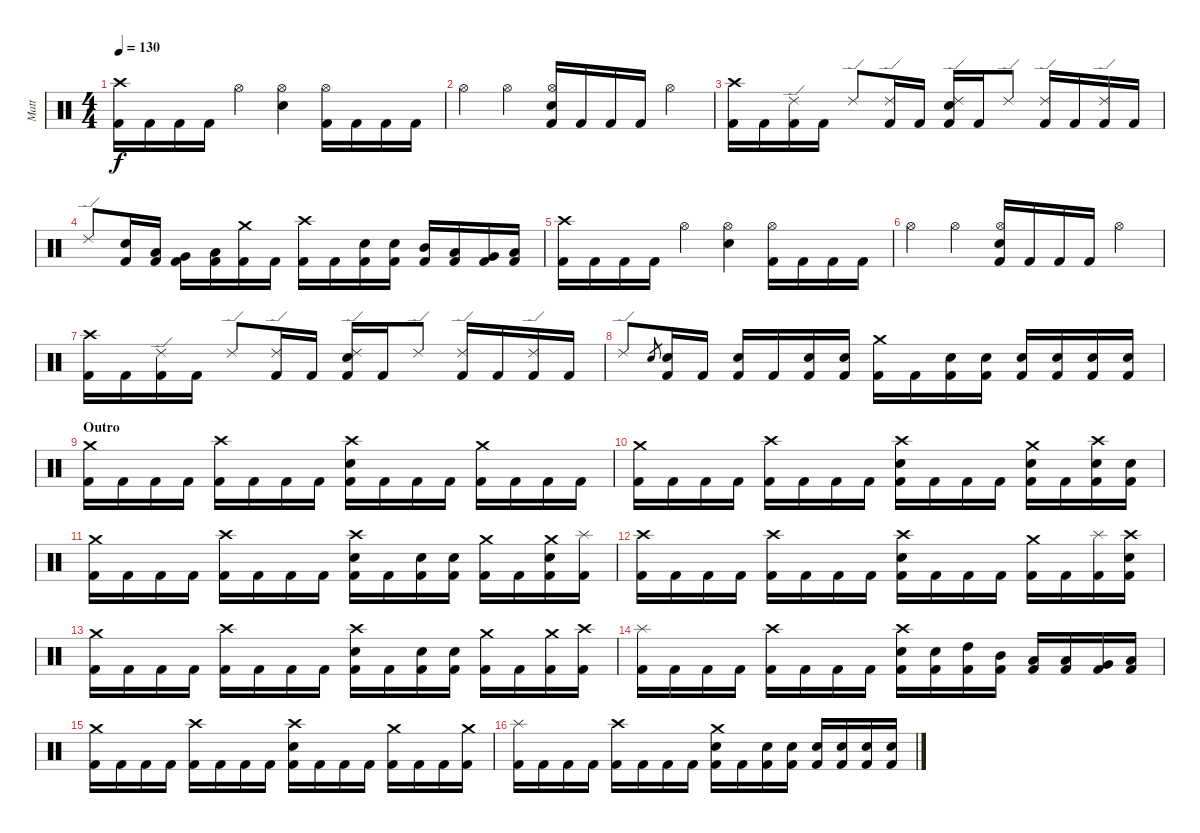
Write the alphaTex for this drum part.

\track ("Matt" "Matt") {instrument percussion}
\staff {score}
\articulation defaults
\ts (4 4)
\tempo 130
\clef neutral
\ks c
("Crash high (hit)" "Kick (hit) 2").16{dy f} "Kick (hit) 2".16 "Kick (hit) 2".16 "Kick (hit) 2".16 "Hi-Hat (open)".4 ("Hi-Hat (open)" "Electric Snare (hit)").4 ("Hi-Hat (open)" "Kick (hit) 2").16 "Kick (hit) 2".16 "Kick (hit) 2".16 "Kick (hit) 2".16 |
"Hi-Hat (open)".4 "Hi-Hat (open)".4 ("Hi-Hat (open)" "Electric Snare (hit)" "Kick (hit) 2").16 "Kick (hit) 2".16 "Kick (hit) 2".16 "Kick (hit) 2".16 "Hi-Hat (open)".4 |
("Crash high (hit)" "Kick (hit) 2").16 "Kick (hit) 2".16 ("Ride (edge) 2" "Kick (hit) 2").16 "Kick (hit) 2".16 "Ride (edge) 2".8 ("Ride (edge) 2" "Kick (hit) 2").16 "Kick (hit) 2".16 ("Ride (edge) 2" "Electric Snare (hit)" "Kick (hit) 2").16 "Kick (hit) 2".16 "Ride (edge) 2".8 ("Ride (edge) 2" "Kick (hit) 2").16 "Kick (hit) 2".16 ("Ride (edge) 2" "Kick (hit) 2").16 "Kick (hit) 2".16 |
"Ride (edge) 2".8 ("Electric Snare (hit)" "Kick (hit) 2").16 ("Low Tom (hit)" "Kick (hit) 2").16 ("Very Low Tom (hit)" "Kick (hit) 2").16 ("Low Floor Tom (hit)" "Kick (hit) 2").16 ("Crash medium (hit)" "Kick (hit) 2").16 "Kick (hit) 2".16 ("Crash high (hit)" "Kick (hit) 2").16 "Kick (hit) 2".16 ("Electric Snare (hit)" "Kick (hit) 2").16 ("Electric Snare (hit)" "Kick (hit) 2").16 ("Mid Tom (hit)" "Kick (hit) 2").16 ("Low Tom (hit)" "Kick (hit) 2").16 ("Very Low Tom (hit)" "Kick (hit) 2").16 ("Low Floor Tom (hit)" "Kick (hit) 2").16 |
("Crash high (hit)" "Kick (hit) 2").16 "Kick (hit) 2".16 "Kick (hit) 2".16 "Kick (hit) 2".16 "Hi-Hat (open)".4 ("Hi-Hat (open)" "Electric Snare (hit)").4 ("Hi-Hat (open)" "Kick (hit) 2").16 "Kick (hit) 2".16 "Kick (hit) 2".16 "Kick (hit) 2".16 |
"Hi-Hat (open)".4 "Hi-Hat (open)".4 ("Hi-Hat (open)" "Electric Snare (hit)" "Kick (hit) 2").16 "Kick (hit) 2".16 "Kick (hit) 2".16 "Kick (hit) 2".16 "Hi-Hat (open)".4 |
("Crash high (hit)" "Kick (hit) 2").16 "Kick (hit) 2".16 ("Ride (edge) 2" "Kick (hit) 2").16 "Kick (hit) 2".16 "Ride (edge) 2".8 ("Ride (edge) 2" "Kick (hit) 2").16 "Kick (hit) 2".16 ("Ride (edge) 2" "Electric Snare (hit)" "Kick (hit) 2").16 "Kick (hit) 2".16 "Ride (edge) 2".8 ("Ride (edge) 2" "Kick (hit) 2").16 "Kick (hit) 2".16 ("Ride (edge) 2" "Kick (hit) 2").16 "Kick (hit) 2".16 |
"Ride (edge) 2".8 "Electric Snare (hit)".8{gr} ("Electric Snare (hit)" "Kick (hit) 2").16 "Kick (hit) 2".16 ("Electric Snare (hit)" "Kick (hit) 2").16 "Kick (hit) 2".16 ("Electric Snare (hit)" "Kick (hit) 2").16 ("Electric Snare (hit)" "Kick (hit) 2").16 ("Crash medium (hit)" "Kick (hit) 2").16 "Kick (hit) 2".16 ("Electric Snare (hit)" "Kick (hit) 2").16 ("Electric Snare (hit)" "Kick (hit) 2").16 ("Electric Snare (hit)" "Kick (hit) 2").16 ("Electric Snare (hit)" "Kick (hit) 2").16 ("Electric Snare (hit)" "Kick (hit) 2").16 ("Electric Snare (hit)" "Kick (hit) 2").16 |
\section ("" "Outro")
("Crash medium (hit)" "Kick (hit) 2").16 "Kick (hit) 2".16 "Kick (hit) 2".16 "Kick (hit) 2".16 ("Crash high (hit)" "Kick (hit) 2").16 "Kick (hit) 2".16 "Kick (hit) 2".16 "Kick (hit) 2".16 ("Crash high (hit)" "Electric Snare (hit)" "Kick (hit) 2").16 "Kick (hit) 2".16 "Kick (hit) 2".16 "Kick (hit) 2".16 ("Crash medium (hit)" "Kick (hit) 2").16 "Kick (hit) 2".16 "Kick (hit) 2".16 "Kick (hit) 2".16 |
("Crash medium (hit)" "Kick (hit) 2").16 "Kick (hit) 2".16 "Kick (hit) 2".16 "Kick (hit) 2".16 ("Crash high (hit)" "Kick (hit) 2").16 "Kick (hit) 2".16 "Kick (hit) 2".16 "Kick (hit) 2".16 ("Crash high (hit)" "Electric Snare (hit)" "Kick (hit) 2").16 "Kick (hit) 2".16 "Kick (hit) 2".16 "Kick (hit) 2".16 ("Crash medium (hit)" "Electric Snare (hit)" "Kick (hit) 2").16 "Kick (hit) 2".16 ("Crash high (hit)" "Electric Snare (hit)" "Kick (hit) 2").16 ("Electric Snare (hit)" "Kick (hit) 2").16 |
("Crash medium (hit)" "Kick (hit) 2").16 "Kick (hit) 2".16 "Kick (hit) 2".16 "Kick (hit) 2".16 ("Crash high (hit)" "Kick (hit) 2").16 "Kick (hit) 2".16 "Kick (hit) 2".16 "Kick (hit) 2".16 ("Crash high (hit)" "Electric Snare (hit)" "Kick (hit) 2").16 "Kick (hit) 2".16 ("Electric Snare (hit)" "Kick (hit) 2").16 ("Electric Snare (hit)" "Kick (hit) 2").16 ("Crash medium (hit)" "Kick (hit) 2").16 "Kick (hit) 2".16 ("Crash medium (hit)" "Electric Snare (hit)" "Kick (hit) 2").16 ("Splash (hit)" "Kick (hit) 2").16 |
("Crash high (hit)" "Kick (hit) 2").16 "Kick (hit) 2".16 "Kick (hit) 2".16 "Kick (hit) 2".16 ("Crash high (hit)" "Kick (hit) 2").16 "Kick (hit) 2".16 "Kick (hit) 2".16 "Kick (hit) 2".16 ("Crash high (hit)" "Electric Snare (hit)" "Kick (hit) 2").16 "Kick (hit) 2".16 "Kick (hit) 2".16 "Kick (hit) 2".16 ("Crash medium (hit)" "Kick (hit) 2").16 "Kick (hit) 2".16 ("Splash (hit)" "Kick (hit) 2").16 ("Crash high (hit)" "Electric Snare (hit)" "Kick (hit) 2").16 |
("Crash medium (hit)" "Kick (hit) 2").16 "Kick (hit) 2".16 "Kick (hit) 2".16 "Kick (hit) 2".16 ("Crash high (hit)" "Kick (hit) 2").16 "Kick (hit) 2".16 "Kick (hit) 2".16 "Kick (hit) 2".16 ("Crash high (hit)" "Electric Snare (hit)" "Kick (hit) 2").16 "Kick (hit) 2".16 ("Electric Snare (hit)" "Kick (hit) 2").16 ("Electric Snare (hit)" "Kick (hit) 2").16 ("Crash medium (hit)" "Kick (hit) 2").16 "Kick (hit) 2".16 ("Crash medium (hit)" "Kick (hit) 2").16 ("Crash high (hit)" "Kick (hit) 2").16 |
("Splash (hit)" "Kick (hit) 2").16 "Kick (hit) 2".16 "Kick (hit) 2".16 "Kick (hit) 2".16 ("Crash high (hit)" "Kick (hit) 2").16 "Kick (hit) 2".16 "Kick (hit) 2".16 "Kick (hit) 2".16 ("Crash high (hit)" "Electric Snare (hit)" "Kick (hit) 2").16 ("Electric Snare (hit)" "Kick (hit) 2").16 ("High Tom (hit)" "Kick (hit) 2").16 ("Mid Tom (hit)" "Kick (hit) 2").16 ("Low Tom (hit)" "Kick (hit) 2").16 ("Low Tom (hit)" "Kick (hit) 2").16 ("Very Low Tom (hit)" "Kick (hit) 2").16 ("Low Floor Tom (hit)" "Kick (hit) 2").16 |
("Crash medium (hit)" "Kick (hit) 2").16 "Kick (hit) 2".16 "Kick (hit) 2".16 "Kick (hit) 2".16 ("Crash high (hit)" "Kick (hit) 2").16 "Kick (hit) 2".16 "Kick (hit) 2".16 "Kick (hit) 2".16 ("Crash high (hit)" "Electric Snare (hit)" "Kick (hit) 2").16 "Kick (hit) 2".16 "Kick (hit) 2".16 "Kick (hit) 2".16 ("Crash medium (hit)" "Kick (hit) 2").16 "Kick (hit) 2".16 "Kick (hit) 2".16 ("Crash medium (hit)" "Kick (hit) 2").16 |
("Splash (hit)" "Kick (hit) 2").16 "Kick (hit) 2".16 "Kick (hit) 2".16 "Kick (hit) 2".16 ("Crash high (hit)" "Kick (hit) 2").16 "Kick (hit) 2".16 "Kick (hit) 2".16 "Kick (hit) 2".16 ("Crash medium (hit)" "Electric Snare (hit)" "Kick (hit) 2").16 "Kick (hit) 2".16 ("Electric Snare (hit)" "Kick (hit) 2").16 ("Electric Snare (hit)" "Kick (hit) 2").16 ("Electric Snare (hit)" "Kick (hit) 2").16 ("Electric Snare (hit)" "Kick (hit) 2").16 ("Electric Snare (hit)" "Kick (hit) 2").16 ("Electric Snare (hit)" "Kick (hit) 2").16
